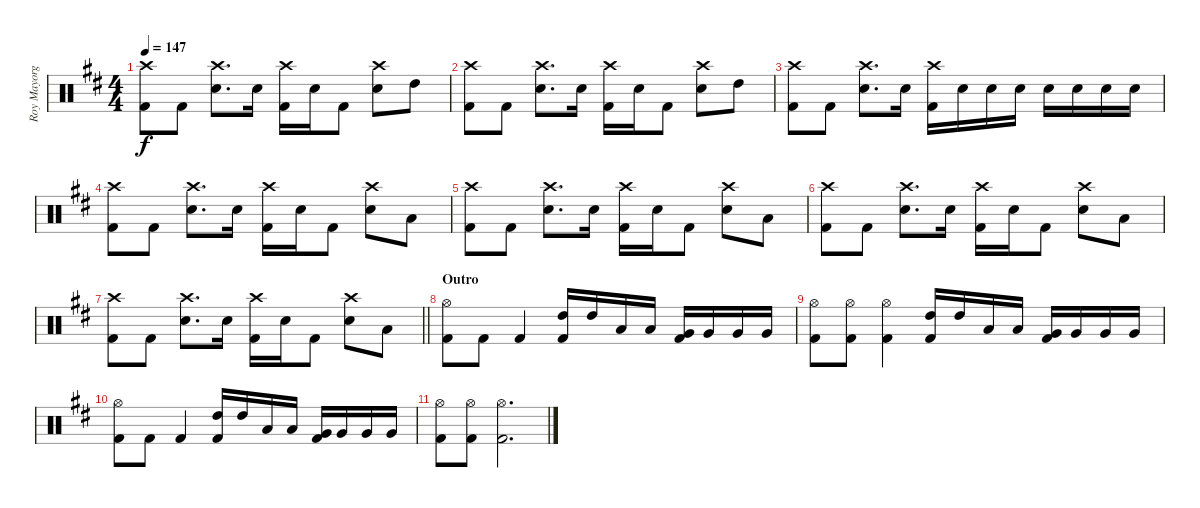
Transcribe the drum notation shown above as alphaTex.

\track ("Roy Mayorga (Drums)" "Roy Mayorg") {instrument percussion}
\staff {score}
\articulation defaults
\ts (4 4)
\tempo 147
\clef neutral
\ks d
("Crash high (hit)" "Kick (hit) 2").8{dy f} "Kick (hit) 2".8 ("Crash high (hit)" "Snare (hit) 2").8{d} "Snare (hit) 2".16 ("Crash high (hit)" "Kick (hit) 2").16 "Snare (hit) 2".16 "Kick (hit) 2".8 ("Crash high (hit)" "Snare (hit) 2").8 "High Tom (hit)".8 |
("Crash high (hit)" "Kick (hit) 2").8 "Kick (hit) 2".8 ("Crash high (hit)" "Snare (hit) 2").8{d} "Snare (hit) 2".16 ("Crash high (hit)" "Kick (hit) 2").16 "Snare (hit) 2".16 "Kick (hit) 2".8 ("Crash high (hit)" "Snare (hit) 2").8 "High Tom (hit)".8 |
("Crash high (hit)" "Kick (hit) 2").8 "Kick (hit) 2".8 ("Crash high (hit)" "Snare (hit) 2").8{d} "Snare (hit) 2".16 ("Crash high (hit)" "Kick (hit) 2").16 "Snare (hit) 2".16 "Snare (hit) 2".16 "Snare (hit) 2".16 "Snare (hit) 2".16 "Snare (hit) 2".16 "Snare (hit) 2".16 "Snare (hit) 2".16 |
("Crash high (hit)" "Kick (hit) 2").8 "Kick (hit) 2".8 ("Crash high (hit)" "Snare (hit) 2").8{d} "Snare (hit) 2".16 ("Crash high (hit)" "Kick (hit) 2").16 "Snare (hit) 2".16 "Kick (hit) 2".8 ("Crash high (hit)" "Snare (hit) 2").8 "Low Tom (hit)".8 |
("Crash high (hit)" "Kick (hit) 2").8 "Kick (hit) 2".8 ("Crash high (hit)" "Snare (hit) 2").8{d} "Snare (hit) 2".16 ("Crash high (hit)" "Kick (hit) 2").16 "Snare (hit) 2".16 "Kick (hit) 2".8 ("Crash high (hit)" "Snare (hit) 2").8 "Low Tom (hit)".8 |
("Crash high (hit)" "Kick (hit) 2").8 "Kick (hit) 2".8 ("Crash high (hit)" "Snare (hit) 2").8{d} "Snare (hit) 2".16 ("Crash high (hit)" "Kick (hit) 2").16 "Snare (hit) 2".16 "Kick (hit) 2".8 ("Crash high (hit)" "Snare (hit) 2").8 "Low Tom (hit)".8 |
\barLineRight lightlight
("Crash high (hit)" "Kick (hit) 2").8 "Kick (hit) 2".8 ("Crash high (hit)" "Snare (hit) 2").8{d} "Snare (hit) 2".16 ("Crash high (hit)" "Kick (hit) 2").16 "Snare (hit) 2".16 "Kick (hit) 2".8 ("Crash high (hit)" "Snare (hit) 2").8 "Low Tom (hit)".8 |
\section ("" "Outro")
("Hi-Hat (open)" "Kick (hit) 2").8 "Kick (hit) 2".8 "Kick (hit) 2".4 ("High Tom (hit)" "Kick (hit) 2").16 "High Tom (hit)".16 "Low Tom (hit)".16 "Low Tom (hit)".16 ("Very Low Tom (hit)" "Kick (hit) 2").16 "Very Low Tom (hit)".16 "Very Low Tom (hit)".16 "Very Low Tom (hit)".16 |
("Hi-Hat (open)" "Kick (hit) 2").8 ("Hi-Hat (open)" "Kick (hit) 2").8 ("Hi-Hat (open)" "Kick (hit) 2").4 ("High Tom (hit)" "Kick (hit) 2").16 "High Tom (hit)".16 "Low Tom (hit)".16 "Low Tom (hit)".16 ("Very Low Tom (hit)" "Kick (hit) 2").16 "Very Low Tom (hit)".16 "Very Low Tom (hit)".16 "Very Low Tom (hit)".16 |
("Hi-Hat (open)" "Kick (hit) 2").8 "Kick (hit) 2".8 "Kick (hit) 2".4 ("High Tom (hit)" "Kick (hit) 2").16 "High Tom (hit)".16 "Low Tom (hit)".16 "Low Tom (hit)".16 ("Very Low Tom (hit)" "Kick (hit) 2").16 "Very Low Tom (hit)".16 "Very Low Tom (hit)".16 "Very Low Tom (hit)".16 |
("Hi-Hat (open)" "Kick (hit) 2").8 ("Hi-Hat (open)" "Kick (hit) 2").8 ("Hi-Hat (open)" "Kick (hit) 2").2{d}
